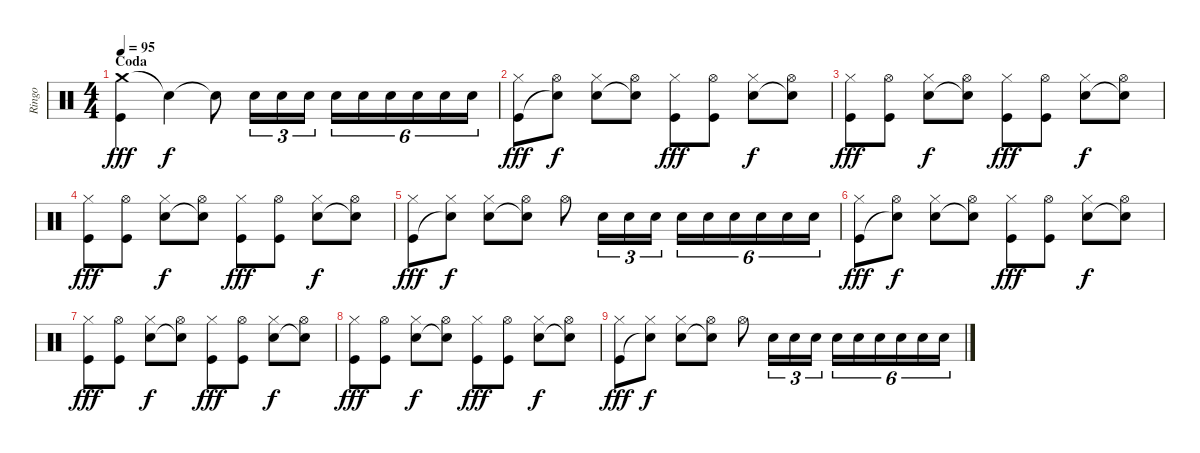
\track ("Ringo" "Ringo") {instrument percussion}
\staff {score}
\articulation defaults
\ts (4 4)
\section ("" "Coda")
\tempo 95
\clef neutral
\ks c
("Crash medium (hit)" "Kick (hit)").4{dy fff} "Snare (hit)"{t}.4{dy f} "Snare (hit)"{t}.8 "Snare (hit) 2".16{tu (3 2)} "Snare (hit) 2".16{tu (3 2)} "Snare (hit) 2".16{tu (3 2)} "Snare (hit) 2".16{tu (6 4)} "Snare (hit) 2".16{tu (6 4)} "Snare (hit) 2".16{tu (6 4)} "Snare (hit) 2".16{tu (6 4)} "Snare (hit) 2".16{tu (6 4)} "Snare (hit) 2".16{tu (6 4)} |
("Hi-Hat (closed)" "Kick (hit)").8{dy fff} ("Hi-Hat (open)" "Snare (hit)"{t}).8{dy f} ("Hi-Hat (closed)" "Snare (hit) 2").8 ("Hi-Hat (open)" "Snare (hit)"{t}).8 ("Hi-Hat (closed)" "Kick (hit)").8{dy fff} ("Hi-Hat (open)" "Kick (hit)").8 ("Hi-Hat (closed)" "Snare (hit) 2").8{dy f} ("Hi-Hat (open)" "Snare (hit)"{t}).8 |
("Hi-Hat (closed)" "Kick (hit)").8{dy fff} ("Hi-Hat (open)" "Kick (hit)").8 ("Hi-Hat (closed)" "Snare (hit) 2").8{dy f} ("Hi-Hat (open)" "Snare (hit)"{t}).8 ("Hi-Hat (closed)" "Kick (hit)").8{dy fff} ("Hi-Hat (open)" "Kick (hit)").8 ("Hi-Hat (closed)" "Snare (hit) 2").8{dy f} ("Hi-Hat (open)" "Snare (hit)"{t}).8 |
("Hi-Hat (closed)" "Kick (hit)").8{dy fff} ("Hi-Hat (open)" "Kick (hit)").8 ("Hi-Hat (closed)" "Snare (hit) 2").8{dy f} ("Hi-Hat (open)" "Snare (hit)"{t}).8 ("Hi-Hat (closed)" "Kick (hit)").8{dy fff} ("Hi-Hat (open)" "Kick (hit)").8 ("Hi-Hat (closed)" "Snare (hit) 2").8{dy f} ("Hi-Hat (open)" "Snare (hit)"{t}).8 |
("Hi-Hat (closed)" "Kick (hit)").8{dy fff} ("Hi-Hat (closed)" "Snare (hit)"{t}).8{dy f} ("Hi-Hat (closed)" "Snare (hit) 2").8 ("Hi-Hat (open)" "Snare (hit)"{t}).8 "Hi-Hat (open)".8 "Snare (hit) 2".16{tu (3 2)} "Snare (hit) 2".16{tu (3 2)} "Snare (hit) 2".16{tu (3 2)} "Snare (hit) 2".16{tu (6 4)} "Snare (hit) 2".16{tu (6 4)} "Snare (hit) 2".16{tu (6 4)} "Snare (hit) 2".16{tu (6 4)} "Snare (hit) 2".16{tu (6 4)} "Snare (hit) 2".16{tu (6 4)} |
("Hi-Hat (closed)" "Kick (hit)").8{dy fff} ("Hi-Hat (open)" "Snare (hit)"{t}).8{dy f} ("Hi-Hat (closed)" "Snare (hit) 2").8 ("Hi-Hat (open)" "Snare (hit)"{t}).8 ("Hi-Hat (closed)" "Kick (hit)").8{dy fff} ("Hi-Hat (open)" "Kick (hit)").8 ("Hi-Hat (closed)" "Snare (hit) 2").8{dy f} ("Hi-Hat (open)" "Snare (hit)"{t}).8 |
("Hi-Hat (closed)" "Kick (hit)").8{dy fff} ("Hi-Hat (open)" "Kick (hit)").8 ("Hi-Hat (closed)" "Snare (hit) 2").8{dy f} ("Hi-Hat (open)" "Snare (hit)"{t}).8 ("Hi-Hat (closed)" "Kick (hit)").8{dy fff} ("Hi-Hat (open)" "Kick (hit)").8 ("Hi-Hat (closed)" "Snare (hit) 2").8{dy f} ("Hi-Hat (open)" "Snare (hit)"{t}).8 |
("Hi-Hat (closed)" "Kick (hit)").8{dy fff} ("Hi-Hat (open)" "Kick (hit)").8 ("Hi-Hat (closed)" "Snare (hit) 2").8{dy f} ("Hi-Hat (open)" "Snare (hit)"{t}).8 ("Hi-Hat (closed)" "Kick (hit)").8{dy fff} ("Hi-Hat (open)" "Kick (hit)").8 ("Hi-Hat (closed)" "Snare (hit) 2").8{dy f} ("Hi-Hat (open)" "Snare (hit)"{t}).8 |
("Hi-Hat (closed)" "Kick (hit)").8{dy fff} ("Hi-Hat (closed)" "Snare (hit)"{t}).8{dy f} ("Hi-Hat (closed)" "Snare (hit) 2").8 ("Hi-Hat (open)" "Snare (hit)"{t}).8 "Hi-Hat (open)".8 "Snare (hit) 2".16{tu (3 2)} "Snare (hit) 2".16{tu (3 2)} "Snare (hit) 2".16{tu (3 2)} "Snare (hit) 2".16{tu (6 4)} "Snare (hit) 2".16{tu (6 4)} "Snare (hit) 2".16{tu (6 4)} "Snare (hit) 2".16{tu (6 4)} "Snare (hit) 2".16{tu (6 4)} "Snare (hit) 2".16{tu (6 4)}
